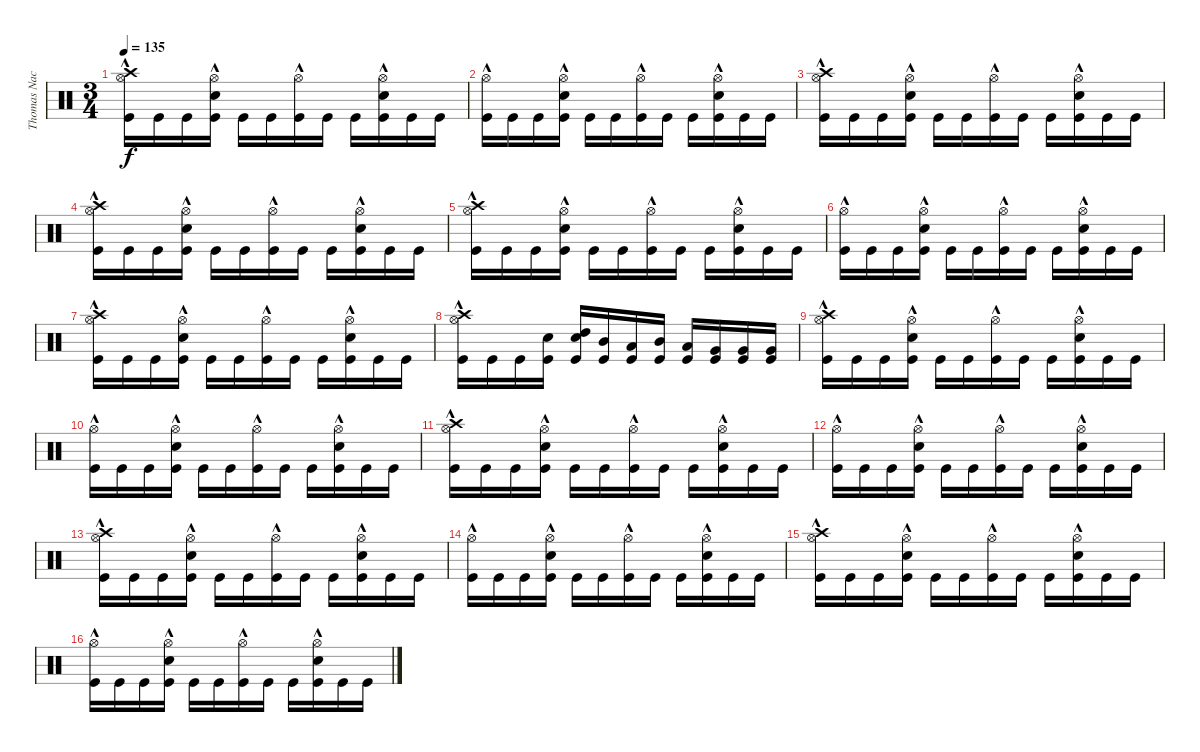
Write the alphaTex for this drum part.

\track ("Thomas Nack" "Thomas Nac") {instrument percussion}
\staff {score}
\articulation defaults
\ts (3 4)
\tempo 135
\clef neutral
\ks c
("Crash high (hit)" "Hi-Hat (open)"{hac} "Kick (hit)").16{dy f} "Kick (hit)".16 "Kick (hit)".16 ("Hi-Hat (open)"{hac} "Kick (hit)" "Electric Snare (hit)").16 "Kick (hit)".16 "Kick (hit)".16 ("Hi-Hat (open)"{hac} "Kick (hit)").16 "Kick (hit)".16 "Kick (hit)".16 ("Hi-Hat (open)"{hac} "Kick (hit)" "Electric Snare (hit)").16 "Kick (hit)".16 "Kick (hit)".16 |
("Hi-Hat (open)"{hac} "Kick (hit)").16 "Kick (hit)".16 "Kick (hit)".16 ("Hi-Hat (open)"{hac} "Kick (hit)" "Electric Snare (hit)").16 "Kick (hit)".16 "Kick (hit)".16 ("Hi-Hat (open)"{hac} "Kick (hit)").16 "Kick (hit)".16 "Kick (hit)".16 ("Hi-Hat (open)"{hac} "Kick (hit)" "Electric Snare (hit)").16 "Kick (hit)".16 "Kick (hit)".16 |
("Crash high (hit)" "Hi-Hat (open)"{hac} "Kick (hit)").16 "Kick (hit)".16 "Kick (hit)".16 ("Hi-Hat (open)"{hac} "Kick (hit)" "Electric Snare (hit)").16 "Kick (hit)".16 "Kick (hit)".16 ("Hi-Hat (open)"{hac} "Kick (hit)").16 "Kick (hit)".16 "Kick (hit)".16 ("Hi-Hat (open)"{hac} "Kick (hit)" "Electric Snare (hit)").16 "Kick (hit)".16 "Kick (hit)".16 |
("Crash high (hit)" "Hi-Hat (open)"{hac} "Kick (hit)").16 "Kick (hit)".16 "Kick (hit)".16 ("Hi-Hat (open)"{hac} "Kick (hit)" "Electric Snare (hit)").16 "Kick (hit)".16 "Kick (hit)".16 ("Hi-Hat (open)"{hac} "Kick (hit)").16 "Kick (hit)".16 "Kick (hit)".16 ("Hi-Hat (open)"{hac} "Kick (hit)" "Electric Snare (hit)").16 "Kick (hit)".16 "Kick (hit)".16 |
("Crash high (hit)" "Hi-Hat (open)"{hac} "Kick (hit)").16 "Kick (hit)".16 "Kick (hit)".16 ("Hi-Hat (open)"{hac} "Kick (hit)" "Electric Snare (hit)").16 "Kick (hit)".16 "Kick (hit)".16 ("Hi-Hat (open)"{hac} "Kick (hit)").16 "Kick (hit)".16 "Kick (hit)".16 ("Hi-Hat (open)"{hac} "Kick (hit)" "Electric Snare (hit)").16 "Kick (hit)".16 "Kick (hit)".16 |
("Hi-Hat (open)"{hac} "Kick (hit)").16 "Kick (hit)".16 "Kick (hit)".16 ("Hi-Hat (open)"{hac} "Kick (hit)" "Electric Snare (hit)").16 "Kick (hit)".16 "Kick (hit)".16 ("Hi-Hat (open)"{hac} "Kick (hit)").16 "Kick (hit)".16 "Kick (hit)".16 ("Hi-Hat (open)"{hac} "Kick (hit)" "Electric Snare (hit)").16 "Kick (hit)".16 "Kick (hit)".16 |
("Crash high (hit)" "Hi-Hat (open)"{hac} "Kick (hit)").16 "Kick (hit)".16 "Kick (hit)".16 ("Hi-Hat (open)"{hac} "Kick (hit)" "Electric Snare (hit)").16 "Kick (hit)".16 "Kick (hit)".16 ("Hi-Hat (open)"{hac} "Kick (hit)").16 "Kick (hit)".16 "Kick (hit)".16 ("Hi-Hat (open)"{hac} "Kick (hit)" "Electric Snare (hit)").16 "Kick (hit)".16 "Kick (hit)".16 |
("Crash high (hit)" "Hi-Hat (open)"{hac} "Kick (hit)").16 "Kick (hit)".16 "Kick (hit)".16 ("Electric Snare (hit)" "Kick (hit)").16 ("Electric Snare (hit)" "High Tom (hit)" "Kick (hit)").16 ("Mid Tom (hit)" "Kick (hit)").16 ("Low Tom (hit)" "Kick (hit)").16 ("Mid Tom (hit)" "Kick (hit)").16 ("Low Tom (hit)" "Kick (hit)").16 ("Very Low Tom (hit)" "Kick (hit)").16 ("Very Low Tom (hit)" "Kick (hit)").16 ("Very Low Tom (hit)" "Kick (hit)").16 |
("Crash high (hit)" "Hi-Hat (open)"{hac} "Kick (hit)").16 "Kick (hit)".16 "Kick (hit)".16 ("Hi-Hat (open)"{hac} "Kick (hit)" "Electric Snare (hit)").16 "Kick (hit)".16 "Kick (hit)".16 ("Hi-Hat (open)"{hac} "Kick (hit)").16 "Kick (hit)".16 "Kick (hit)".16 ("Hi-Hat (open)"{hac} "Kick (hit)" "Electric Snare (hit)").16 "Kick (hit)".16 "Kick (hit)".16 |
("Hi-Hat (open)"{hac} "Kick (hit)").16 "Kick (hit)".16 "Kick (hit)".16 ("Hi-Hat (open)"{hac} "Kick (hit)" "Electric Snare (hit)").16 "Kick (hit)".16 "Kick (hit)".16 ("Hi-Hat (open)"{hac} "Kick (hit)").16 "Kick (hit)".16 "Kick (hit)".16 ("Hi-Hat (open)"{hac} "Kick (hit)" "Electric Snare (hit)").16 "Kick (hit)".16 "Kick (hit)".16 |
("Crash high (hit)" "Hi-Hat (open)"{hac} "Kick (hit)").16 "Kick (hit)".16 "Kick (hit)".16 ("Hi-Hat (open)"{hac} "Kick (hit)" "Electric Snare (hit)").16 "Kick (hit)".16 "Kick (hit)".16 ("Hi-Hat (open)"{hac} "Kick (hit)").16 "Kick (hit)".16 "Kick (hit)".16 ("Hi-Hat (open)"{hac} "Kick (hit)" "Electric Snare (hit)").16 "Kick (hit)".16 "Kick (hit)".16 |
("Hi-Hat (open)"{hac} "Kick (hit)").16 "Kick (hit)".16 "Kick (hit)".16 ("Hi-Hat (open)"{hac} "Kick (hit)" "Electric Snare (hit)").16 "Kick (hit)".16 "Kick (hit)".16 ("Hi-Hat (open)"{hac} "Kick (hit)").16 "Kick (hit)".16 "Kick (hit)".16 ("Hi-Hat (open)"{hac} "Kick (hit)" "Electric Snare (hit)").16 "Kick (hit)".16 "Kick (hit)".16 |
("Crash high (hit)" "Hi-Hat (open)"{hac} "Kick (hit)").16 "Kick (hit)".16 "Kick (hit)".16 ("Hi-Hat (open)"{hac} "Kick (hit)" "Electric Snare (hit)").16 "Kick (hit)".16 "Kick (hit)".16 ("Hi-Hat (open)"{hac} "Kick (hit)").16 "Kick (hit)".16 "Kick (hit)".16 ("Hi-Hat (open)"{hac} "Kick (hit)" "Electric Snare (hit)").16 "Kick (hit)".16 "Kick (hit)".16 |
("Hi-Hat (open)"{hac} "Kick (hit)").16 "Kick (hit)".16 "Kick (hit)".16 ("Hi-Hat (open)"{hac} "Kick (hit)" "Electric Snare (hit)").16 "Kick (hit)".16 "Kick (hit)".16 ("Hi-Hat (open)"{hac} "Kick (hit)").16 "Kick (hit)".16 "Kick (hit)".16 ("Hi-Hat (open)"{hac} "Kick (hit)" "Electric Snare (hit)").16 "Kick (hit)".16 "Kick (hit)".16 |
("Crash high (hit)" "Hi-Hat (open)"{hac} "Kick (hit)").16 "Kick (hit)".16 "Kick (hit)".16 ("Hi-Hat (open)"{hac} "Kick (hit)" "Electric Snare (hit)").16 "Kick (hit)".16 "Kick (hit)".16 ("Hi-Hat (open)"{hac} "Kick (hit)").16 "Kick (hit)".16 "Kick (hit)".16 ("Hi-Hat (open)"{hac} "Kick (hit)" "Electric Snare (hit)").16 "Kick (hit)".16 "Kick (hit)".16 |
("Hi-Hat (open)"{hac} "Kick (hit)").16 "Kick (hit)".16 "Kick (hit)".16 ("Hi-Hat (open)"{hac} "Kick (hit)" "Electric Snare (hit)").16 "Kick (hit)".16 "Kick (hit)".16 ("Hi-Hat (open)"{hac} "Kick (hit)").16 "Kick (hit)".16 "Kick (hit)".16 ("Hi-Hat (open)"{hac} "Kick (hit)" "Electric Snare (hit)").16 "Kick (hit)".16 "Kick (hit)".16
